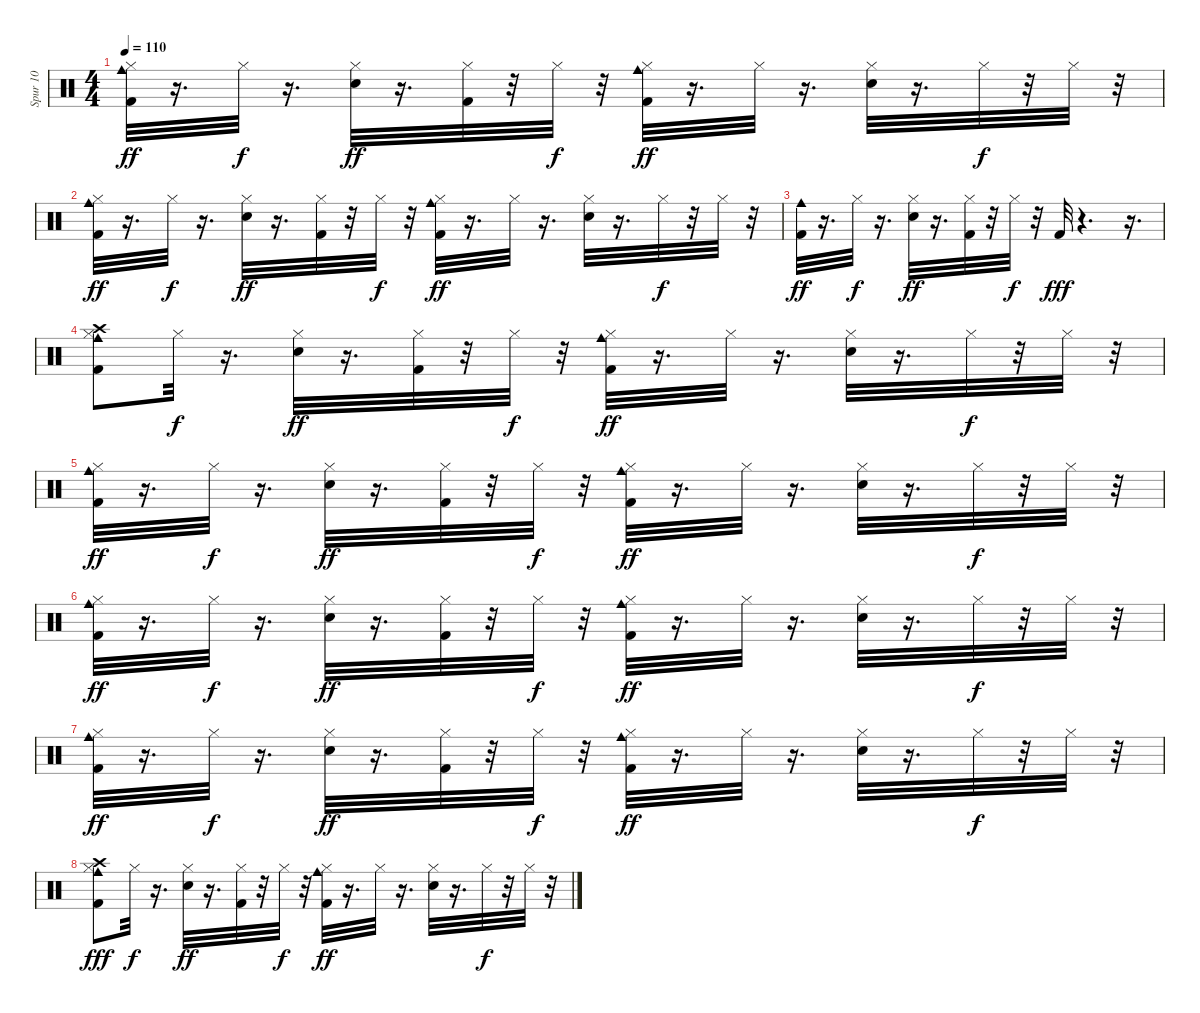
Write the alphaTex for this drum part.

\track ("Spur 10" "Spur 10") {instrument percussion}
\staff {score}
\articulation defaults
\ts (4 4)
\tempo 110
\clef neutral
\ks c
("Kick (hit) 2" "Cowbell medium (hit)" "Hi-Hat (closed)").32{dy ff} r.16{d} "Hi-Hat (closed)".32{dy f} r.16{d} ("Snare (hit) 2" "Hi-Hat (closed)").32{dy ff} r.16{d} ("Kick (hit) 2" "Hi-Hat (closed)").32 r.32 "Hi-Hat (closed)".32{dy f} r.32 ("Kick (hit) 2" "Cowbell medium (hit)" "Hi-Hat (closed)").32{dy ff} r.16{d} "Hi-Hat (closed)".32 r.16{d} ("Snare (hit) 2" "Hi-Hat (closed)").32 r.16{d} "Hi-Hat (closed)".32{dy f} r.32 "Hi-Hat (closed)".32 r.32 |
("Kick (hit) 2" "Cowbell medium (hit)" "Hi-Hat (closed)").32{dy ff} r.16{d} "Hi-Hat (closed)".32{dy f} r.16{d} ("Snare (hit) 2" "Hi-Hat (closed)").32{dy ff} r.16{d} ("Kick (hit) 2" "Hi-Hat (closed)").32 r.32 "Hi-Hat (closed)".32{dy f} r.32 ("Kick (hit) 2" "Cowbell medium (hit)" "Hi-Hat (closed)").32{dy ff} r.16{d} "Hi-Hat (closed)".32 r.16{d} ("Snare (hit) 2" "Hi-Hat (closed)").32 r.16{d} "Hi-Hat (closed)".32{dy f} r.32 "Hi-Hat (closed)".32 r.32 |
("Kick (hit) 2" "Cowbell medium (hit)").32{dy ff} r.16{d} "Hi-Hat (closed)".32{dy f} r.16{d} ("Snare (hit) 2" "Hi-Hat (closed)").32{dy ff} r.16{d} ("Kick (hit) 2" "Hi-Hat (closed)").32 r.32 "Hi-Hat (closed)".32{dy f} r.32 "Kick (hit) 2".32{dy fff} r.4{d} r.16{d} |
("Kick (hit) 2" "Cowbell medium (hit)" "Hi-Hat (closed)" "Crash high (hit)").8 "Hi-Hat (closed)".32{dy f} r.16{d} ("Snare (hit) 2" "Hi-Hat (closed)").32{dy ff} r.16{d} ("Kick (hit) 2" "Hi-Hat (closed)").32 r.32 "Hi-Hat (closed)".32{dy f} r.32 ("Kick (hit) 2" "Cowbell medium (hit)" "Hi-Hat (closed)").32{dy ff} r.16{d} "Hi-Hat (closed)".32 r.16{d} ("Snare (hit) 2" "Hi-Hat (closed)").32 r.16{d} "Hi-Hat (closed)".32{dy f} r.32 "Hi-Hat (closed)".32 r.32 |
("Kick (hit) 2" "Cowbell medium (hit)" "Hi-Hat (closed)").32{dy ff} r.16{d} "Hi-Hat (closed)".32{dy f} r.16{d} ("Snare (hit) 2" "Hi-Hat (closed)").32{dy ff} r.16{d} ("Kick (hit) 2" "Hi-Hat (closed)").32 r.32 "Hi-Hat (closed)".32{dy f} r.32 ("Kick (hit) 2" "Cowbell medium (hit)" "Hi-Hat (closed)").32{dy ff} r.16{d} "Hi-Hat (closed)".32 r.16{d} ("Snare (hit) 2" "Hi-Hat (closed)").32 r.16{d} "Hi-Hat (closed)".32{dy f} r.32 "Hi-Hat (closed)".32 r.32 |
("Kick (hit) 2" "Cowbell medium (hit)" "Hi-Hat (closed)").32{dy ff} r.16{d} "Hi-Hat (closed)".32{dy f} r.16{d} ("Snare (hit) 2" "Hi-Hat (closed)").32{dy ff} r.16{d} ("Kick (hit) 2" "Hi-Hat (closed)").32 r.32 "Hi-Hat (closed)".32{dy f} r.32 ("Kick (hit) 2" "Cowbell medium (hit)" "Hi-Hat (closed)").32{dy ff} r.16{d} "Hi-Hat (closed)".32 r.16{d} ("Snare (hit) 2" "Hi-Hat (closed)").32 r.16{d} "Hi-Hat (closed)".32{dy f} r.32 "Hi-Hat (closed)".32 r.32 |
("Kick (hit) 2" "Cowbell medium (hit)" "Hi-Hat (closed)").32{dy ff} r.16{d} "Hi-Hat (closed)".32{dy f} r.16{d} ("Snare (hit) 2" "Hi-Hat (closed)").32{dy ff} r.16{d} ("Kick (hit) 2" "Hi-Hat (closed)").32 r.32 "Hi-Hat (closed)".32{dy f} r.32 ("Kick (hit) 2" "Cowbell medium (hit)" "Hi-Hat (closed)").32{dy ff} r.16{d} "Hi-Hat (closed)".32 r.16{d} ("Snare (hit) 2" "Hi-Hat (closed)").32 r.16{d} "Hi-Hat (closed)".32{dy f} r.32 "Hi-Hat (closed)".32 r.32 |
("Kick (hit) 2" "Cowbell medium (hit)" "Hi-Hat (closed)" "Crash high (hit)").8{dy fff} "Hi-Hat (closed)".32{dy f} r.16{d} ("Snare (hit) 2" "Hi-Hat (closed)").32{dy ff} r.16{d} ("Kick (hit) 2" "Hi-Hat (closed)").32 r.32 "Hi-Hat (closed)".32{dy f} r.32 ("Kick (hit) 2" "Cowbell medium (hit)" "Hi-Hat (closed)").32{dy ff} r.16{d} "Hi-Hat (closed)".32 r.16{d} ("Snare (hit) 2" "Hi-Hat (closed)").32 r.16{d} "Hi-Hat (closed)".32{dy f} r.32 "Hi-Hat (closed)".32 r.32
